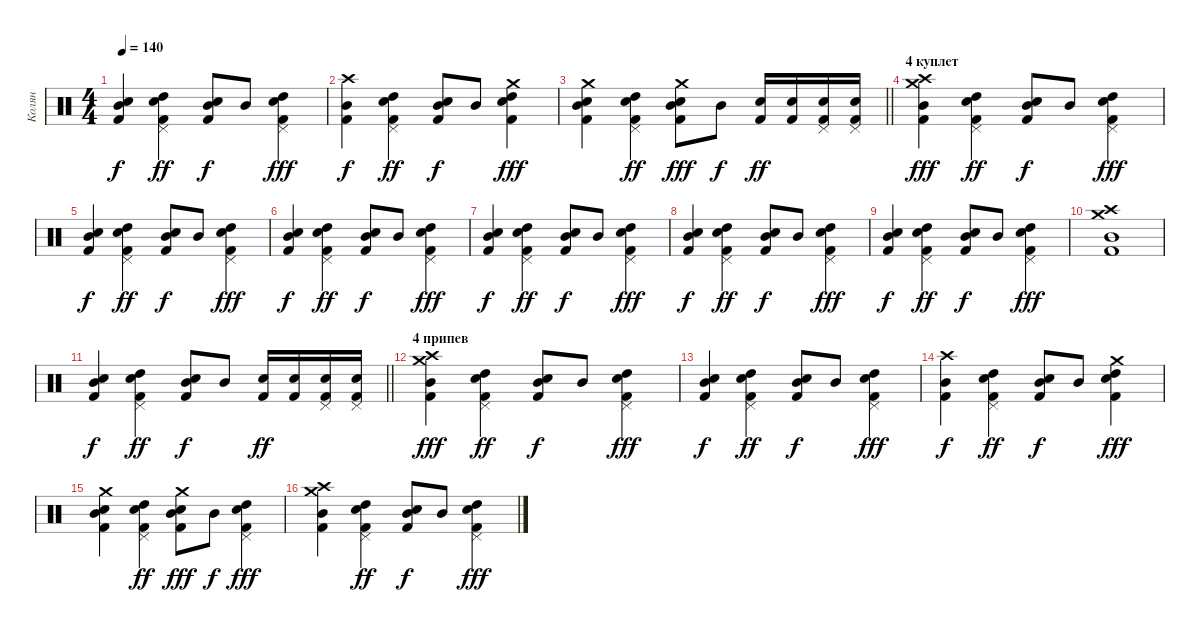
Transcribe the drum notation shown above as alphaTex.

\track ("Колян" "Колян") {instrument percussion}
\staff {score}
\articulation defaults
\ts (4 4)
\tempo 140
\clef neutral
\ks c
("Mid Tom (hit)" "Snare (hit) 2" "Kick (hit) 2").4{dy f} ("Pedal Hi-Hat (hit)" "High Tom (hit)" "Snare (hit) 2" "Kick (hit) 2").4{dy ff} ("Mid Tom (hit)" "Snare (hit) 2" "Kick (hit) 2").8{dy f} "Mid Tom (hit)".8 ("Pedal Hi-Hat (hit)" "High Tom (hit)" "Snare (hit) 2" "Kick (hit) 2").4{dy fff} |
("Mid Tom (hit)" "Crash high (hit)" "Kick (hit) 2").4{dy f} ("Pedal Hi-Hat (hit)" "High Tom (hit)" "Snare (hit) 2" "Kick (hit) 2").4{dy ff} ("Mid Tom (hit)" "Snare (hit) 2" "Kick (hit) 2").8{dy f} "Mid Tom (hit)".8 ("Crash medium (hit)" "High Tom (hit)" "Snare (hit) 2" "Kick (hit) 2").4{dy fff} |
\barLineRight lightlight
("Crash medium (hit)" "Mid Tom (hit)" "Snare (hit) 2" "Kick (hit) 2").4 ("Pedal Hi-Hat (hit)" "High Tom (hit)" "Snare (hit) 2" "Kick (hit) 2").4{dy ff} ("Crash medium (hit)" "Mid Tom (hit)" "Snare (hit) 2" "Kick (hit) 2").8{dy fff} "Mid Tom (hit)".8{dy f} ("Snare (hit) 2" "Kick (hit) 2").16{dy ff} ("Snare (hit) 2" "Kick (hit) 2").16 ("Pedal Hi-Hat (hit)" "Snare (hit) 2" "Kick (hit) 2").16 ("Pedal Hi-Hat (hit)" "Snare (hit) 2" "Kick (hit) 2").16 |
\section ("" "4 куплет")
("Crash medium (hit)" "Mid Tom (hit)" "Crash high (hit)" "Kick (hit) 2").4{dy fff} ("Pedal Hi-Hat (hit)" "High Tom (hit)" "Snare (hit) 2" "Kick (hit) 2").4{dy ff} ("Mid Tom (hit)" "Snare (hit) 2" "Kick (hit) 2").8{dy f} "Mid Tom (hit)".8 ("Pedal Hi-Hat (hit)" "High Tom (hit)" "Snare (hit) 2" "Kick (hit) 2").4{dy fff} |
("Mid Tom (hit)" "Snare (hit) 2" "Kick (hit) 2").4{dy f} ("Pedal Hi-Hat (hit)" "High Tom (hit)" "Snare (hit) 2" "Kick (hit) 2").4{dy ff} ("Mid Tom (hit)" "Snare (hit) 2" "Kick (hit) 2").8{dy f} "Mid Tom (hit)".8 ("Pedal Hi-Hat (hit)" "High Tom (hit)" "Snare (hit) 2" "Kick (hit) 2").4{dy fff} |
("Mid Tom (hit)" "Snare (hit) 2" "Kick (hit) 2").4{dy f} ("Pedal Hi-Hat (hit)" "High Tom (hit)" "Snare (hit) 2" "Kick (hit) 2").4{dy ff} ("Mid Tom (hit)" "Snare (hit) 2" "Kick (hit) 2").8{dy f} "Mid Tom (hit)".8 ("Pedal Hi-Hat (hit)" "High Tom (hit)" "Snare (hit) 2" "Kick (hit) 2").4{dy fff} |
("Mid Tom (hit)" "Snare (hit) 2" "Kick (hit) 2").4{dy f} ("Pedal Hi-Hat (hit)" "High Tom (hit)" "Snare (hit) 2" "Kick (hit) 2").4{dy ff} ("Mid Tom (hit)" "Snare (hit) 2" "Kick (hit) 2").8{dy f} "Mid Tom (hit)".8 ("Pedal Hi-Hat (hit)" "High Tom (hit)" "Snare (hit) 2" "Kick (hit) 2").4{dy fff} |
("Mid Tom (hit)" "Snare (hit) 2" "Kick (hit) 2").4{dy f} ("Pedal Hi-Hat (hit)" "High Tom (hit)" "Snare (hit) 2" "Kick (hit) 2").4{dy ff} ("Mid Tom (hit)" "Snare (hit) 2" "Kick (hit) 2").8{dy f} "Mid Tom (hit)".8 ("Pedal Hi-Hat (hit)" "High Tom (hit)" "Snare (hit) 2" "Kick (hit) 2").4{dy fff} |
("Mid Tom (hit)" "Snare (hit) 2" "Kick (hit) 2").4{dy f} ("Pedal Hi-Hat (hit)" "High Tom (hit)" "Snare (hit) 2" "Kick (hit) 2").4{dy ff} ("Mid Tom (hit)" "Snare (hit) 2" "Kick (hit) 2").8{dy f} "Mid Tom (hit)".8 ("Pedal Hi-Hat (hit)" "High Tom (hit)" "Snare (hit) 2" "Kick (hit) 2").4{dy fff} |
("Crash medium (hit)" "Mid Tom (hit)" "Crash high (hit)" "Kick (hit) 2").1 |
\barLineRight lightlight
("Mid Tom (hit)" "Snare (hit) 2" "Kick (hit) 2").4{dy f} ("Pedal Hi-Hat (hit)" "High Tom (hit)" "Snare (hit) 2" "Kick (hit) 2").4{dy ff} ("Mid Tom (hit)" "Snare (hit) 2" "Kick (hit) 2").8{dy f} "Mid Tom (hit)".8 ("Snare (hit) 2" "Kick (hit) 2").16{dy ff} ("Snare (hit) 2" "Kick (hit) 2").16 ("Pedal Hi-Hat (hit)" "Snare (hit) 2" "Kick (hit) 2").16 ("Pedal Hi-Hat (hit)" "Snare (hit) 2" "Kick (hit) 2").16 |
\section ("" "4 припев")
("Crash medium (hit)" "Mid Tom (hit)" "Crash high (hit)" "Kick (hit) 2").4{dy fff} ("Pedal Hi-Hat (hit)" "High Tom (hit)" "Snare (hit) 2" "Kick (hit) 2").4{dy ff} ("Mid Tom (hit)" "Snare (hit) 2" "Kick (hit) 2").8{dy f} "Mid Tom (hit)".8 ("Pedal Hi-Hat (hit)" "High Tom (hit)" "Snare (hit) 2" "Kick (hit) 2").4{dy fff} |
("Mid Tom (hit)" "Snare (hit) 2" "Kick (hit) 2").4{dy f} ("Pedal Hi-Hat (hit)" "High Tom (hit)" "Snare (hit) 2" "Kick (hit) 2").4{dy ff} ("Mid Tom (hit)" "Snare (hit) 2" "Kick (hit) 2").8{dy f} "Mid Tom (hit)".8 ("Pedal Hi-Hat (hit)" "High Tom (hit)" "Snare (hit) 2" "Kick (hit) 2").4{dy fff} |
("Mid Tom (hit)" "Crash high (hit)" "Kick (hit) 2").4{dy f} ("Pedal Hi-Hat (hit)" "High Tom (hit)" "Snare (hit) 2" "Kick (hit) 2").4{dy ff} ("Mid Tom (hit)" "Snare (hit) 2" "Kick (hit) 2").8{dy f} "Mid Tom (hit)".8 ("Crash medium (hit)" "High Tom (hit)" "Snare (hit) 2" "Kick (hit) 2").4{dy fff} |
("Crash medium (hit)" "Mid Tom (hit)" "Snare (hit) 2" "Kick (hit) 2").4 ("Pedal Hi-Hat (hit)" "High Tom (hit)" "Snare (hit) 2" "Kick (hit) 2").4{dy ff} ("Crash medium (hit)" "Mid Tom (hit)" "Snare (hit) 2" "Kick (hit) 2").8{dy fff} "Mid Tom (hit)".8{dy f} ("Pedal Hi-Hat (hit)" "High Tom (hit)" "Snare (hit) 2" "Kick (hit) 2").4{dy fff} |
("Crash medium (hit)" "Mid Tom (hit)" "Crash high (hit)" "Kick (hit) 2").4 ("Pedal Hi-Hat (hit)" "High Tom (hit)" "Snare (hit) 2" "Kick (hit) 2").4{dy ff} ("Mid Tom (hit)" "Snare (hit) 2" "Kick (hit) 2").8{dy f} "Mid Tom (hit)".8 ("Pedal Hi-Hat (hit)" "High Tom (hit)" "Snare (hit) 2" "Kick (hit) 2").4{dy fff}
